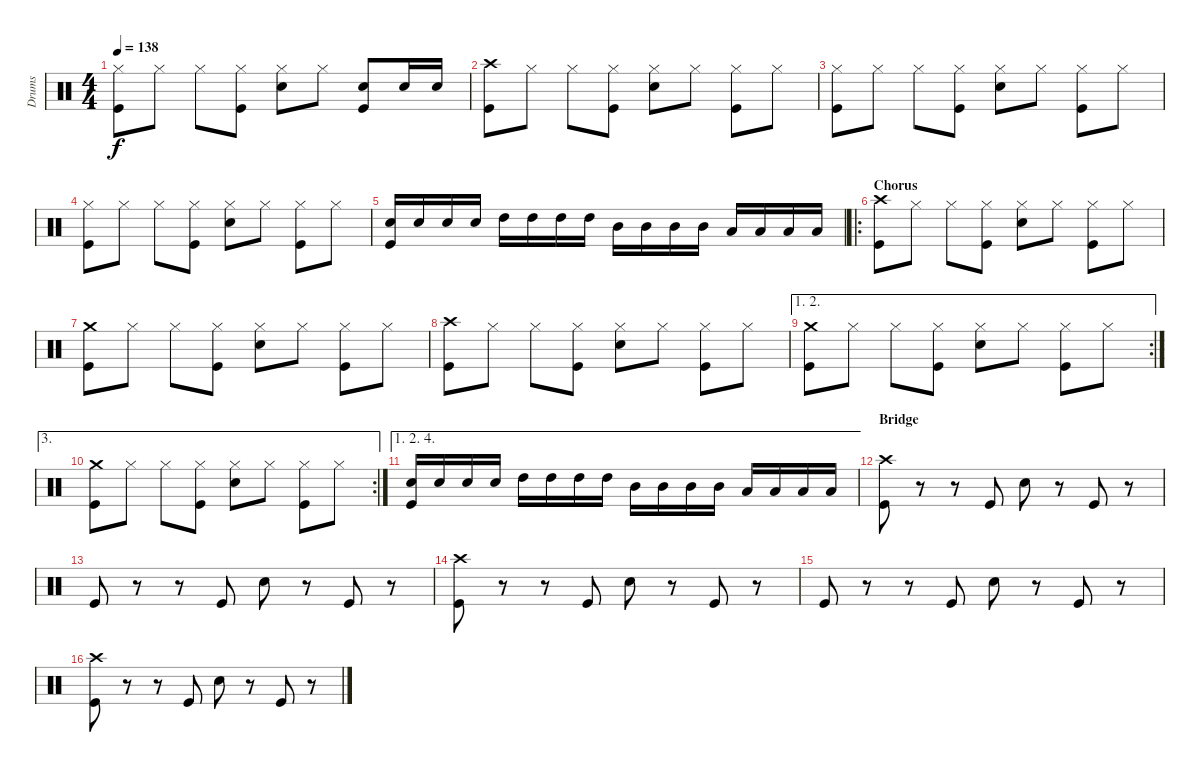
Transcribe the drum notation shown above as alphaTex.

\track ("Drums" "Drums") {instrument percussion}
\staff {score}
\articulation defaults
\ts (4 4)
\tempo 138
\clef neutral
\ks c
("Hi-Hat (closed)" "Kick (hit)").8{dy f} "Hi-Hat (closed)".8 "Hi-Hat (closed)".8 ("Hi-Hat (closed)" "Kick (hit)").8 ("Hi-Hat (closed)" "Snare (hit) 2").8 "Hi-Hat (closed)".8 ("Snare (hit) 2" "Kick (hit)").8 "Snare (hit) 2".16 "Snare (hit) 2".16 |
("Crash high (hit)" "Kick (hit)").8 "Hi-Hat (closed)".8 "Hi-Hat (closed)".8 ("Hi-Hat (closed)" "Kick (hit)").8 ("Hi-Hat (closed)" "Snare (hit) 2").8 "Hi-Hat (closed)".8 ("Hi-Hat (closed)" "Kick (hit)").8 "Hi-Hat (closed)".8 |
("Hi-Hat (closed)" "Kick (hit)").8 "Hi-Hat (closed)".8 "Hi-Hat (closed)".8 ("Hi-Hat (closed)" "Kick (hit)").8 ("Hi-Hat (closed)" "Snare (hit) 2").8 "Hi-Hat (closed)".8 ("Hi-Hat (closed)" "Kick (hit)").8 "Hi-Hat (closed)".8 |
("Hi-Hat (closed)" "Kick (hit)").8 "Hi-Hat (closed)".8 "Hi-Hat (closed)".8 ("Hi-Hat (closed)" "Kick (hit)").8 ("Hi-Hat (closed)" "Snare (hit) 2").8 "Hi-Hat (closed)".8 ("Hi-Hat (closed)" "Kick (hit)").8 "Hi-Hat (closed)".8 |
("Snare (hit) 2" "Kick (hit)").16 "Snare (hit) 2".16 "Snare (hit) 2".16 "Snare (hit) 2".16 "High Tom (hit)".16 "High Tom (hit)".16 "High Tom (hit)".16 "High Tom (hit)".16 "Mid Tom (hit)".16 "Mid Tom (hit)".16 "Mid Tom (hit)".16 "Mid Tom (hit)".16 "Low Tom (hit)".16 "Low Tom (hit)".16 "Low Tom (hit)".16 "Low Tom (hit)".16 |
\ro
\section ("" "Chorus")
("Crash high (hit)" "Kick (hit)").8 "Hi-Hat (closed)".8 "Hi-Hat (closed)".8 ("Hi-Hat (closed)" "Kick (hit)").8 ("Hi-Hat (closed)" "Snare (hit) 2").8 "Hi-Hat (closed)".8 ("Hi-Hat (closed)" "Kick (hit)").8 "Hi-Hat (closed)".8 |
("Crash medium (hit)" "Kick (hit)").8 "Hi-Hat (closed)".8 "Hi-Hat (closed)".8 ("Hi-Hat (closed)" "Kick (hit)").8 ("Hi-Hat (closed)" "Snare (hit) 2").8 "Hi-Hat (closed)".8 ("Hi-Hat (closed)" "Kick (hit)").8 "Hi-Hat (closed)".8 |
("Crash high (hit)" "Kick (hit)").8 "Hi-Hat (closed)".8 "Hi-Hat (closed)".8 ("Hi-Hat (closed)" "Kick (hit)").8 ("Hi-Hat (closed)" "Snare (hit) 2").8 "Hi-Hat (closed)".8 ("Hi-Hat (closed)" "Kick (hit)").8 "Hi-Hat (closed)".8 |
\ae (1 2)
\rc 2
("Crash medium (hit)" "Kick (hit)").8 "Hi-Hat (closed)".8 "Hi-Hat (closed)".8 ("Hi-Hat (closed)" "Kick (hit)").8 ("Hi-Hat (closed)" "Snare (hit) 2").8 "Hi-Hat (closed)".8 ("Hi-Hat (closed)" "Kick (hit)").8 "Hi-Hat (closed)".8 |
\ae 3
\rc 2
("Crash medium (hit)" "Kick (hit)").8 "Hi-Hat (closed)".8 "Hi-Hat (closed)".8 ("Hi-Hat (closed)" "Kick (hit)").8 ("Hi-Hat (closed)" "Snare (hit) 2").8 "Hi-Hat (closed)".8 ("Hi-Hat (closed)" "Kick (hit)").8 "Hi-Hat (closed)".8 |
\ae (1 2 4)
("Snare (hit) 2" "Kick (hit)").16 "Snare (hit) 2".16 "Snare (hit) 2".16 "Snare (hit) 2".16 "High Tom (hit)".16 "High Tom (hit)".16 "High Tom (hit)".16 "High Tom (hit)".16 "Mid Tom (hit)".16 "Mid Tom (hit)".16 "Mid Tom (hit)".16 "Mid Tom (hit)".16 "Low Tom (hit)".16 "Low Tom (hit)".16 "Low Tom (hit)".16 "Low Tom (hit)".16 |
\section ("" "Bridge")
("Crash high (hit)" "Kick (hit)").8 r.8 r.8 "Kick (hit)".8 "Snare (hit) 2".8 r.8 "Kick (hit)".8 r.8 |
"Kick (hit)".8 r.8 r.8 "Kick (hit)".8 "Snare (hit) 2".8 r.8 "Kick (hit)".8 r.8 |
("Crash high (hit)" "Kick (hit)").8 r.8 r.8 "Kick (hit)".8 "Snare (hit) 2".8 r.8 "Kick (hit)".8 r.8 |
"Kick (hit)".8 r.8 r.8 "Kick (hit)".8 "Snare (hit) 2".8 r.8 "Kick (hit)".8 r.8 |
("Crash high (hit)" "Kick (hit)").8 r.8 r.8 "Kick (hit)".8 "Snare (hit) 2".8 r.8 "Kick (hit)".8 r.8
